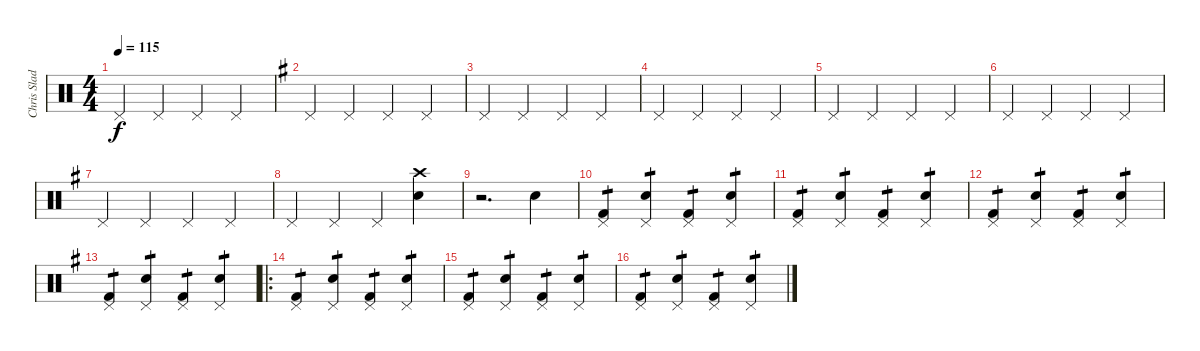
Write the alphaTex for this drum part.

\track ("Chris Slade" "Chris Slad") {instrument percussion}
\staff {score}
\articulation defaults
\ts (4 4)
\tempo 115
\clef neutral
\ks c "Pedal Hi-Hat (hit)".4{dy f} "Pedal Hi-Hat (hit)".4 "Pedal Hi-Hat (hit)".4 "Pedal Hi-Hat (hit)".4
|
\ks g "Pedal Hi-Hat (hit)".4 "Pedal Hi-Hat (hit)".4 "Pedal Hi-Hat (hit)".4 "Pedal Hi-Hat (hit)".4
|
"Pedal Hi-Hat (hit)".4 "Pedal Hi-Hat (hit)".4 "Pedal Hi-Hat (hit)".4 "Pedal Hi-Hat (hit)".4 |
"Pedal Hi-Hat (hit)".4 "Pedal Hi-Hat (hit)".4 "Pedal Hi-Hat (hit)".4 "Pedal Hi-Hat (hit)".4 |
"Pedal Hi-Hat (hit)".4 "Pedal Hi-Hat (hit)".4 "Pedal Hi-Hat (hit)".4 "Pedal Hi-Hat (hit)".4 |
"Pedal Hi-Hat (hit)".4 "Pedal Hi-Hat (hit)".4 "Pedal Hi-Hat (hit)".4 "Pedal Hi-Hat (hit)".4 |
"Pedal Hi-Hat (hit)".4 "Pedal Hi-Hat (hit)".4 "Pedal Hi-Hat (hit)".4 "Pedal Hi-Hat (hit)".4 |
"Pedal Hi-Hat (hit)".4 "Pedal Hi-Hat (hit)".4 "Pedal Hi-Hat (hit)".4 ("Snare (hit) 2" "Crash high (hit)").4 |
r.2{d} "Snare (hit) 2".4 |
("Kick (hit) 2" "Pedal Hi-Hat (hit)").4{tp 1} ("Snare (hit) 2" "Pedal Hi-Hat (hit)").4{tp 1} ("Kick (hit) 2" "Pedal Hi-Hat (hit)").4{tp 1} ("Snare (hit) 2" "Pedal Hi-Hat (hit)").4{tp 1} |
("Kick (hit) 2" "Pedal Hi-Hat (hit)").4{tp 1} ("Snare (hit) 2" "Pedal Hi-Hat (hit)").4{tp 1} ("Kick (hit) 2" "Pedal Hi-Hat (hit)").4{tp 1} ("Snare (hit) 2" "Pedal Hi-Hat (hit)").4{tp 1} |
("Kick (hit) 2" "Pedal Hi-Hat (hit)").4{tp 1} ("Snare (hit) 2" "Pedal Hi-Hat (hit)").4{tp 1} ("Kick (hit) 2" "Pedal Hi-Hat (hit)").4{tp 1} ("Snare (hit) 2" "Pedal Hi-Hat (hit)").4{tp 1} |
("Kick (hit) 2" "Pedal Hi-Hat (hit)").4{tp 1} ("Snare (hit) 2" "Pedal Hi-Hat (hit)").4{tp 1} ("Kick (hit) 2" "Pedal Hi-Hat (hit)").4{tp 1} ("Snare (hit) 2" "Pedal Hi-Hat (hit)").4{tp 1} |
\ro
("Kick (hit) 2" "Pedal Hi-Hat (hit)").4{tp 1} ("Snare (hit) 2" "Pedal Hi-Hat (hit)").4{tp 1} ("Kick (hit) 2" "Pedal Hi-Hat (hit)").4{tp 1} ("Snare (hit) 2" "Pedal Hi-Hat (hit)").4{tp 1} |
("Kick (hit) 2" "Pedal Hi-Hat (hit)").4{tp 1} ("Snare (hit) 2" "Pedal Hi-Hat (hit)").4{tp 1} ("Kick (hit) 2" "Pedal Hi-Hat (hit)").4{tp 1} ("Snare (hit) 2" "Pedal Hi-Hat (hit)").4{tp 1} |
("Kick (hit) 2" "Pedal Hi-Hat (hit)").4{tp 1} ("Snare (hit) 2" "Pedal Hi-Hat (hit)").4{tp 1} ("Kick (hit) 2" "Pedal Hi-Hat (hit)").4{tp 1} ("Snare (hit) 2" "Pedal Hi-Hat (hit)").4{tp 1}
